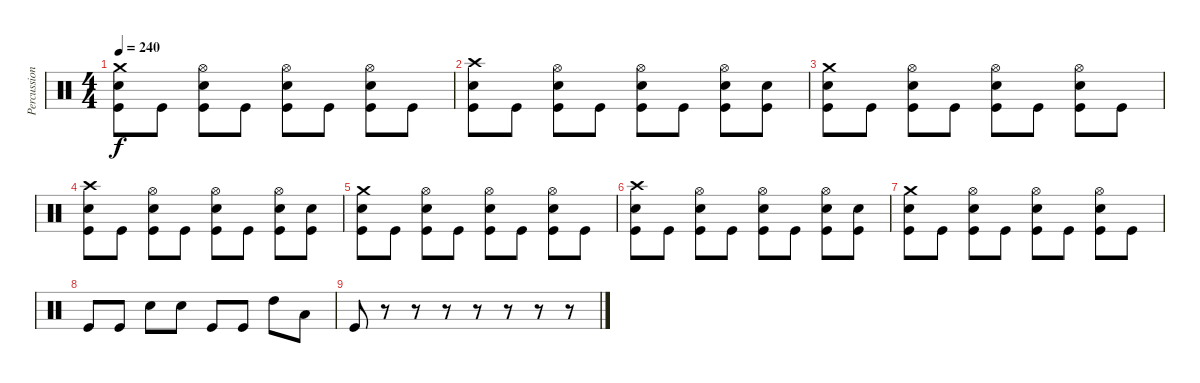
\track ("Percussion" "Percussion") {instrument percussion}
\staff {score}
\articulation defaults
\ts (4 4)
\tempo 240
\clef neutral
\ks c
("Crash medium (hit)" "Snare (hit) 2" "Kick (hit)").8{dy f} "Kick (hit)".8 ("Hi-Hat (open)" "Snare (hit) 2" "Kick (hit)").8 "Kick (hit)".8 ("Hi-Hat (open)" "Snare (hit) 2" "Kick (hit)").8 "Kick (hit)".8 ("Hi-Hat (open)" "Snare (hit) 2" "Kick (hit)").8 "Kick (hit)".8 |
("Crash high (hit)" "Snare (hit) 2" "Kick (hit)").8 "Kick (hit)".8 ("Hi-Hat (open)" "Snare (hit) 2" "Kick (hit)").8 "Kick (hit)".8 ("Hi-Hat (open)" "Snare (hit) 2" "Kick (hit)").8 "Kick (hit)".8 ("Hi-Hat (open)" "Snare (hit) 2" "Kick (hit)").8 ("Snare (hit) 2" "Kick (hit)").8 |
("Crash medium (hit)" "Snare (hit) 2" "Kick (hit)").8 "Kick (hit)".8 ("Hi-Hat (open)" "Snare (hit) 2" "Kick (hit)").8 "Kick (hit)".8 ("Hi-Hat (open)" "Snare (hit) 2" "Kick (hit)").8 "Kick (hit)".8 ("Hi-Hat (open)" "Snare (hit) 2" "Kick (hit)").8 "Kick (hit)".8 |
("Crash high (hit)" "Snare (hit) 2" "Kick (hit)").8 "Kick (hit)".8 ("Hi-Hat (open)" "Snare (hit) 2" "Kick (hit)").8 "Kick (hit)".8 ("Hi-Hat (open)" "Snare (hit) 2" "Kick (hit)").8 "Kick (hit)".8 ("Hi-Hat (open)" "Snare (hit) 2" "Kick (hit)").8 ("Snare (hit) 2" "Kick (hit)").8 |
("Crash medium (hit)" "Snare (hit) 2" "Kick (hit)").8 "Kick (hit)".8 ("Hi-Hat (open)" "Snare (hit) 2" "Kick (hit)").8 "Kick (hit)".8 ("Hi-Hat (open)" "Snare (hit) 2" "Kick (hit)").8 "Kick (hit)".8 ("Hi-Hat (open)" "Snare (hit) 2" "Kick (hit)").8 "Kick (hit)".8 |
("Crash high (hit)" "Snare (hit) 2" "Kick (hit)").8 "Kick (hit)".8 ("Hi-Hat (open)" "Snare (hit) 2" "Kick (hit)").8 "Kick (hit)".8 ("Hi-Hat (open)" "Snare (hit) 2" "Kick (hit)").8 "Kick (hit)".8 ("Hi-Hat (open)" "Snare (hit) 2" "Kick (hit)").8 ("Snare (hit) 2" "Kick (hit)").8 |
("Crash medium (hit)" "Snare (hit) 2" "Kick (hit)").8 "Kick (hit)".8 ("Hi-Hat (open)" "Snare (hit) 2" "Kick (hit)").8 "Kick (hit)".8 ("Hi-Hat (open)" "Snare (hit) 2" "Kick (hit)").8 "Kick (hit)".8 ("Hi-Hat (open)" "Snare (hit) 2" "Kick (hit)").8 "Kick (hit)".8 |
"Kick (hit)".8 "Kick (hit)".8 "Snare (hit) 2".8 "Snare (hit) 2".8 "Kick (hit)".8 "Kick (hit)".8 "High Tom (hit)".8 "Low Tom (hit)".8 |
"Kick (hit)".8 r.8 r.8 r.8 r.8 r.8 r.8 r.8
